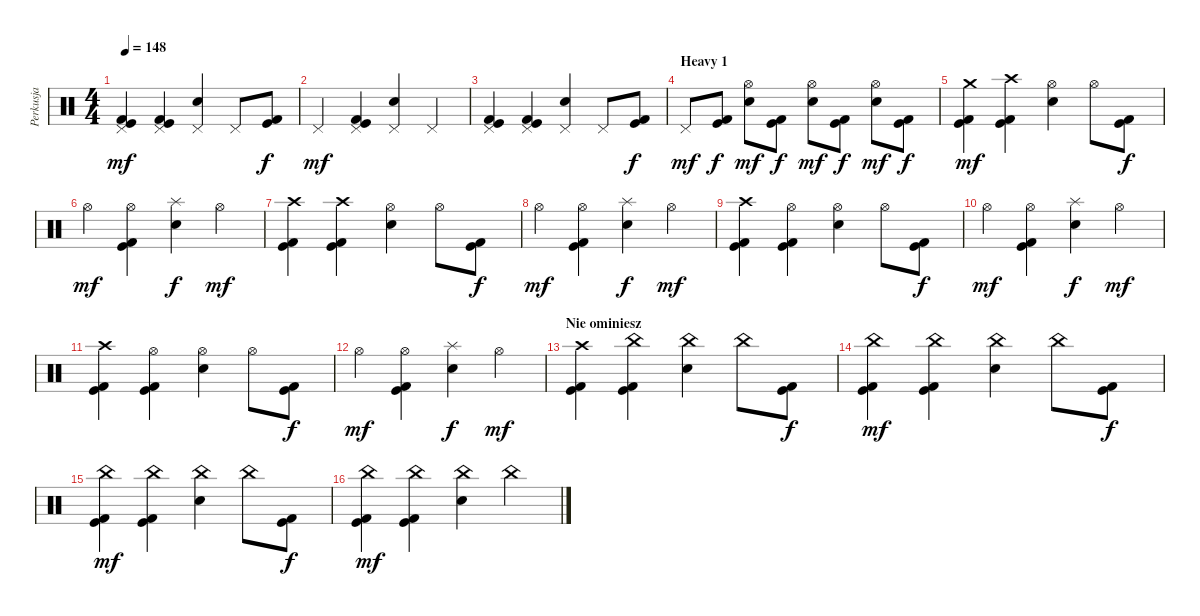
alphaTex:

\track ("Perkusja" "Perkusja") {instrument percussion}
\staff {score}
\articulation defaults
\ts (4 4)
\tempo 148
\clef neutral
\ks c
("Kick (hit) 2" "Kick (hit)" "Pedal Hi-Hat (hit)").4{dy mf} ("Kick (hit) 2" "Kick (hit)" "Pedal Hi-Hat (hit)").4 ("Snare (hit) 2" "Pedal Hi-Hat (hit)").4 "Pedal Hi-Hat (hit)".8 ("Kick (hit) 2" "Kick (hit)").8{dy f} |
"Pedal Hi-Hat (hit)".4{dy mf} ("Kick (hit)" "Kick (hit) 2" "Pedal Hi-Hat (hit)").4 ("Snare (hit) 2" "Pedal Hi-Hat (hit)").4 "Pedal Hi-Hat (hit)".4 |
("Kick (hit) 2" "Kick (hit)" "Pedal Hi-Hat (hit)").4 ("Kick (hit) 2" "Kick (hit)" "Pedal Hi-Hat (hit)").4 ("Snare (hit) 2" "Pedal Hi-Hat (hit)").4 "Pedal Hi-Hat (hit)".8 ("Kick (hit) 2" "Kick (hit)").8{dy f} |
\section ("" "Heavy 1")
"Pedal Hi-Hat (hit)".8{dy mf} ("Kick (hit)" "Kick (hit) 2").8{dy f} ("Snare (hit) 2" "Hi-Hat (open)").8{dy mf} ("Kick (hit) 2" "Kick (hit)").8{dy f} ("Snare (hit) 2" "Hi-Hat (open)").8{dy mf} ("Kick (hit) 2" "Kick (hit)").8{dy f} ("Snare (hit) 2" "Hi-Hat (open)").8{dy mf} ("Kick (hit) 2" "Kick (hit)").8{dy f} |
("Kick (hit) 2" "Kick (hit)" "Crash medium (hit)").4{dy mf} ("Kick (hit) 2" "Kick (hit)" "Crash high (hit)").4 ("Snare (hit) 2" "Hi-Hat (open)").4 "Hi-Hat (open)".8 ("Kick (hit) 2" "Kick (hit)").8{dy f} |
"Hi-Hat (open)".4{dy mf} ("Kick (hit)" "Kick (hit) 2" "Hi-Hat (open)").4 ("Snare (hit) 2" "Splash (hit)").4{dy f} "Hi-Hat (open)".4{dy mf} |
("Kick (hit) 2" "Kick (hit)" "Crash high (hit)").4 ("Kick (hit) 2" "Kick (hit)" "Crash high (hit)").4 ("Snare (hit) 2" "Hi-Hat (open)").4 "Hi-Hat (open)".8 ("Kick (hit) 2" "Kick (hit)").8{dy f} |
"Hi-Hat (open)".4{dy mf} ("Kick (hit)" "Kick (hit) 2" "Hi-Hat (open)").4 ("Snare (hit) 2" "Splash (hit)").4{dy f} "Hi-Hat (open)".4{dy mf} |
("Kick (hit) 2" "Kick (hit)" "Crash high (hit)").4 ("Kick (hit) 2" "Kick (hit)" "Hi-Hat (open)").4 ("Snare (hit) 2" "Hi-Hat (open)").4 "Hi-Hat (open)".8 ("Kick (hit) 2" "Kick (hit)").8{dy f} |
"Hi-Hat (open)".4{dy mf} ("Kick (hit)" "Kick (hit) 2" "Hi-Hat (open)").4 ("Snare (hit) 2" "Splash (hit)").4{dy f} "Hi-Hat (open)".4{dy mf} |
("Kick (hit) 2" "Kick (hit)" "Crash high (hit)").4 ("Kick (hit) 2" "Kick (hit)" "Hi-Hat (open)").4 ("Snare (hit) 2" "Hi-Hat (open)").4 "Hi-Hat (open)".8 ("Kick (hit) 2" "Kick (hit)").8{dy f} |
"Hi-Hat (open)".4{dy mf} ("Kick (hit)" "Kick (hit) 2" "Hi-Hat (open)").4 ("Snare (hit) 2" "Splash (hit)").4{dy f} "Hi-Hat (open)".4{dy mf} |
\section ("" "Nie ominiesz")
("Kick (hit) 2" "Kick (hit)" "Crash high (hit)").4 ("Kick (hit) 2" "Kick (hit)" "China (hit)").4 ("Snare (hit) 2" "China (hit)").4 "China (hit)".8 ("Kick (hit) 2" "Kick (hit)").8{dy f} |
("Kick (hit) 2" "Kick (hit)" "China (hit)").4{dy mf} ("Kick (hit) 2" "Kick (hit)" "China (hit)").4 ("Snare (hit) 2" "China (hit)").4 "China (hit)".8 ("Kick (hit) 2" "Kick (hit)").8{dy f} |
("Kick (hit) 2" "Kick (hit)" "China (hit)").4{dy mf} ("Kick (hit) 2" "Kick (hit)" "China (hit)").4 ("Snare (hit) 2" "China (hit)").4 "China (hit)".8 ("Kick (hit) 2" "Kick (hit)").8{dy f} |
("Kick (hit) 2" "Kick (hit)" "China (hit)").4{dy mf} ("Kick (hit) 2" "Kick (hit)" "China (hit)").4 ("Snare (hit) 2" "China (hit)").4 "China (hit)".4
